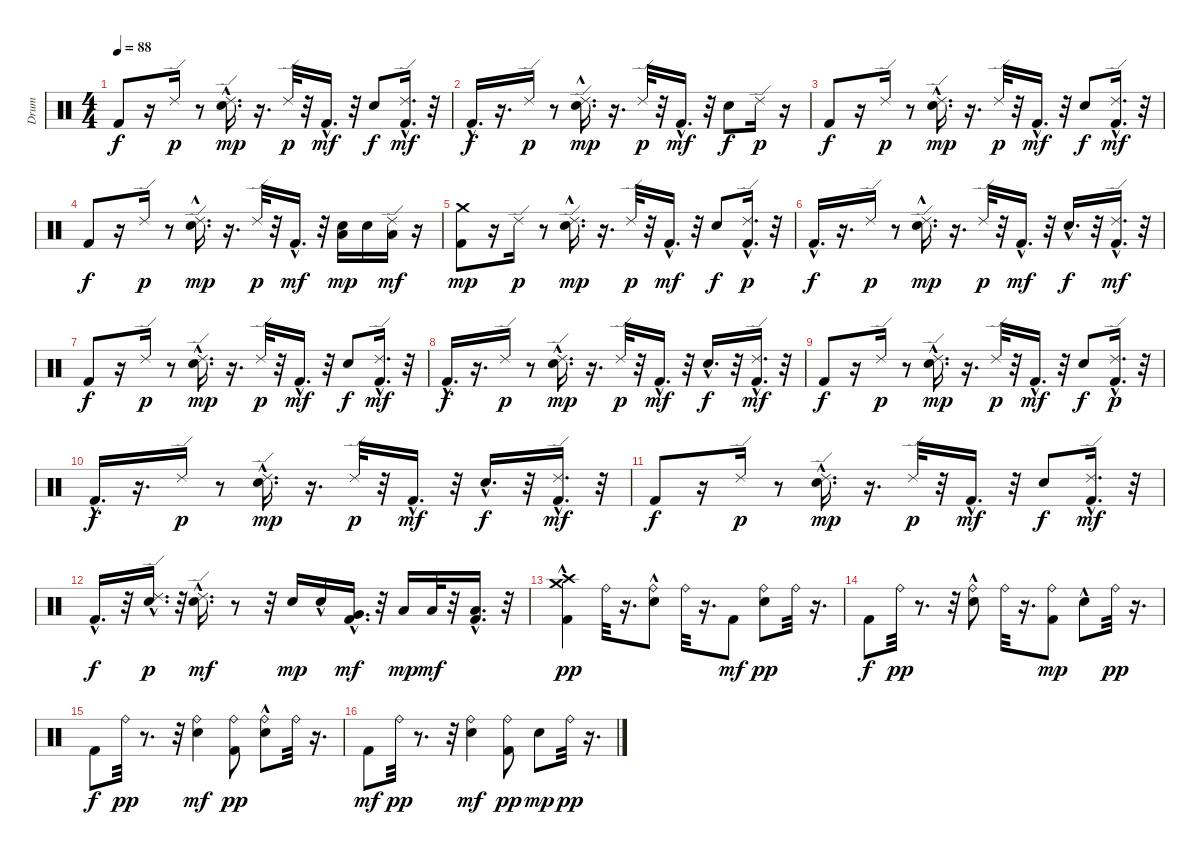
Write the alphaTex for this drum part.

\track ("Drum" "Drum") {instrument percussion}
\staff {score}
\articulation defaults
\ts (4 4)
\tempo 88
\clef neutral
\ks c "Kick (hit) 2".8{dy f}
r.16 "Ride (edge) 2".16{dy p} r.8 ("Electric Snare (hit)"{hac} "Ride (edge) 2").16{d dy mp} r.16{d} "Ride (edge) 2".32{dy p} r.32 "Kick (hit) 2"{hac}.16{d dy mf} r.32 "Electric Snare (hit)".8{dy f} ("Ride (edge) 2" "Kick (hit) 2"{hac}).16{d dy mf} r.32 |
"Kick (hit) 2"{hac}.16{d dy f} r.16{d} "Ride (edge) 2".16{dy p} r.8 ("Ride (edge) 2" "Electric Snare (hit)"{hac}).16{d dy mp} r.16{d} "Ride (edge) 2".32{dy p} r.32 "Kick (hit) 2"{hac}.16{d dy mf} r.32 "Electric Snare (hit)".8{dy f} "Ride (edge) 2".16{dy p} r.16 |
"Kick (hit) 2".8{dy f} r.16 "Ride (edge) 2".16{dy p} r.8 ("Electric Snare (hit)"{hac} "Ride (edge) 2").16{d dy mp} r.16{d} "Ride (edge) 2".32{dy p} r.32 "Kick (hit) 2"{hac}.16{d dy mf} r.32 "Electric Snare (hit)".8{dy f} ("Ride (edge) 2" "Kick (hit) 2"{hac}).16{d dy mf} r.32 |
"Kick (hit) 2".8{dy f} r.16 "Ride (edge) 2".16{dy p} r.8 ("Ride (edge) 2" "Electric Snare (hit)"{hac}).16{d dy mp} r.16{d} "Ride (edge) 2".32{dy p} r.32 "Kick (hit) 2"{hac}.16{d dy mf} r.32 ("Electric Snare (hit)" "Low Tom (hit)").16{dy mp} "Electric Snare (hit)".16 ("Ride (edge) 2" "Low Tom (hit)").16{dy mf} r.16 |
("Crash medium (hit)" "Kick (hit) 2").8{dy mp} r.16 "Ride (edge) 2".16{dy p} r.8 ("Ride (edge) 2" "Electric Snare (hit)"{hac}).16{d dy mp} r.16{d} "Ride (edge) 2".32{dy p} r.32 "Kick (hit) 2"{hac}.16{d dy mf} r.32 "Electric Snare (hit)".8{dy f} ("Kick (hit) 2"{hac} "Ride (edge) 2").16{d dy p} r.32 |
"Kick (hit) 2"{hac}.16{d dy f} r.16{d} "Ride (edge) 2".16{dy p} r.8 ("Ride (edge) 2" "Electric Snare (hit)"{hac}).16{d dy mp} r.16{d} "Ride (edge) 2".32{dy p} r.32 "Kick (hit) 2"{hac}.16{d dy mf} r.32 "Electric Snare (hit)"{hac}.16{d dy f} r.32 ("Ride (edge) 2" "Kick (hit) 2"{hac}).16{d dy mf} r.32 |
"Kick (hit) 2".8{dy f} r.16 "Ride (edge) 2".16{dy p} r.8 ("Electric Snare (hit)"{hac} "Ride (edge) 2").16{d dy mp} r.16{d} "Ride (edge) 2".32{dy p} r.32 "Kick (hit) 2"{hac}.16{d dy mf} r.32 "Electric Snare (hit)".8{dy f} ("Ride (edge) 2" "Kick (hit) 2"{hac}).16{d dy mf} r.32 |
"Kick (hit) 2"{hac}.16{d dy f} r.16{d} "Ride (edge) 2".16{dy p} r.8 ("Electric Snare (hit)"{hac} "Ride (edge) 2").16{d dy mp} r.16{d} "Ride (edge) 2".32{dy p} r.32 "Kick (hit) 2"{hac}.16{d dy mf} r.32 "Electric Snare (hit)"{hac}.16{d dy f} r.32 ("Ride (edge) 2" "Kick (hit) 2"{hac}).16{d dy mf} r.32 |
"Kick (hit) 2".8{dy f} r.16 "Ride (edge) 2".16{dy p} r.8 ("Electric Snare (hit)"{hac} "Ride (edge) 2").16{d dy mp} r.16{d} "Ride (edge) 2".32{dy p} r.32 "Kick (hit) 2"{hac}.16{d dy mf} r.32 "Electric Snare (hit)".8{dy f} ("Kick (hit) 2"{hac} "Ride (edge) 2").16{d dy p} r.32 |
"Kick (hit) 2"{hac}.16{d dy f} r.16{d} "Ride (edge) 2".16{dy p} r.8 ("Electric Snare (hit)"{hac} "Ride (edge) 2").16{d dy mp} r.16{d} "Ride (edge) 2".32{dy p} r.32 "Kick (hit) 2"{hac}.16{d dy mf} r.32 "Electric Snare (hit)"{hac}.16{d dy f} r.32 ("Ride (edge) 2" "Kick (hit) 2"{hac}).16{d dy mf} r.32 |
"Kick (hit) 2".8{dy f} r.16 "Ride (edge) 2".16{dy p} r.8 ("Electric Snare (hit)"{hac} "Ride (edge) 2").16{d dy mp} r.16{d} "Ride (edge) 2".32{dy p} r.32 "Kick (hit) 2"{hac}.16{d dy mf} r.32 "Electric Snare (hit)".8{dy f} ("Ride (edge) 2" "Kick (hit) 2"{hac}).16{d dy mf} r.32 |
"Kick (hit) 2"{hac}.16{d dy f} r.32 ("Ride (edge) 2"{hac} "Electric Snare (hit)").16{d dy p} r.32 ("Ride (edge) 2"{hac} "Electric Snare (hit)").16{d dy mf} r.8 r.32 "Electric Snare (hit)".16{dy mp} "Electric Snare (hit)"{hac}.16 ("Very Low Tom (hit)"{hac} "Kick (hit) 2"{hac}).16{d dy mf} r.32 "Low Floor Tom (hit)".16{dy mp} "Low Floor Tom (hit)".32{dy mf} r.32 ("Low Floor Tom (hit)"{hac} "Kick (hit) 2"{hac}).16{d} r.32 |
("Crash high (hit)"{hac} "Crash medium (hit)"{hac} "Kick (hit) 2").4{dy pp} "Ride (bell)".32 r.16{d} ("Electric Snare (hit)"{hac} "Ride (bell)").8 "Ride (bell)".32 r.16{d} "Kick (hit) 2".8{dy mf} ("Electric Snare (hit)" "Ride (bell)").8{dy pp} "Ride (bell)".32 r.16{d} |
"Kick (hit) 2".8{dy f} "Ride (bell)".32{dy pp} r.8{d} r.32 ("Electric Snare (hit)"{hac} "Ride (bell)").8 "Ride (bell)".32 r.16{d} ("Ride (bell)" "Kick (hit) 2").8{dy mp} "Electric Snare (hit)"{hac}.8 "Ride (bell)".32{dy pp} r.16{d} |
"Kick (hit) 2".8{dy f} "Ride (bell)".32{dy pp} r.8{d} r.32 ("Ride (bell)" "Electric Snare (hit)").4{dy mf} ("Kick (hit) 2" "Ride (bell)").8{dy pp} ("Electric Snare (hit)"{hac} "Ride (bell)").8 "Ride (bell)".32 r.16{d} |
"Kick (hit) 2".8{dy mf} "Ride (bell)".32{dy pp} r.8{d} r.32 ("Ride (bell)" "Electric Snare (hit)").4{dy mf} ("Kick (hit) 2" "Ride (bell)").8{dy pp} "Electric Snare (hit)".8{dy mp} "Ride (bell)".32{dy pp} r.16{d}
